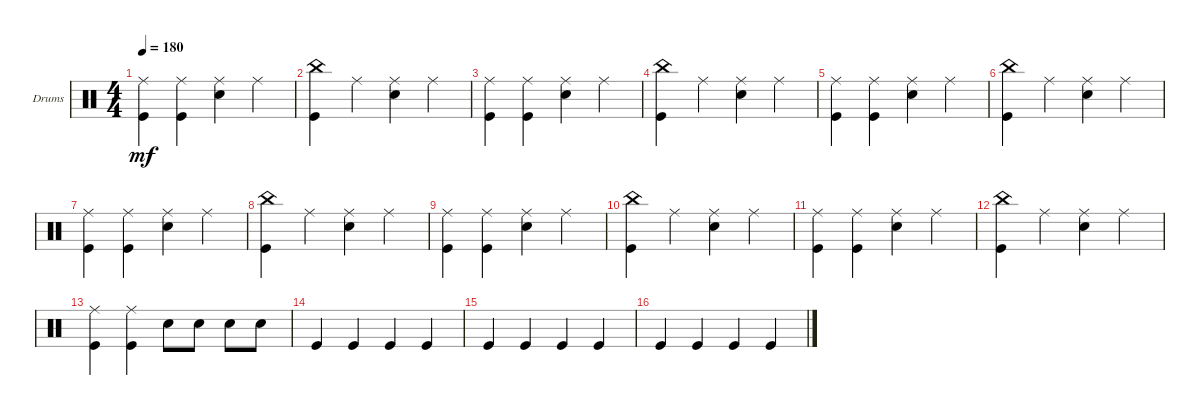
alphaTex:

\defaultSystemsLayout 4
\bracketExtendMode groupsimilarinstruments
\firstSystemTrackNameOrientation horizontal
\otherSystemsTrackNameOrientation horizontal
\track ("Drumkit" "Drums") {instrument percussion}
\staff {score}
\articulation defaults
\ts (4 4)
\tempo 180
\clef neutral
\ks c
("Ride (middle)" "Kick (hit)").4{dy mf} ("Ride (middle)" "Kick (hit)").4 ("Ride (middle)" "Snare (hit) 2").4 "Ride (middle)".4 |
("Kick (hit)" "China (hit)").4 "Ride (middle)".4 ("Ride (middle)" "Snare (hit) 2").4 "Ride (middle)".4 |
("Ride (middle)" "Kick (hit)").4 ("Ride (middle)" "Kick (hit)").4 ("Ride (middle)" "Snare (hit) 2").4 "Ride (middle)".4 |
("Kick (hit)" "China (hit)").4 "Ride (middle)".4 ("Ride (middle)" "Snare (hit) 2").4 "Ride (middle)".4 |
("Ride (middle)" "Kick (hit)").4 ("Ride (middle)" "Kick (hit)").4 ("Ride (middle)" "Snare (hit) 2").4 "Ride (middle)".4 |
("Kick (hit)" "China (hit)").4 "Ride (middle)".4 ("Ride (middle)" "Snare (hit) 2").4 "Ride (middle)".4 |
("Ride (middle)" "Kick (hit)").4 ("Ride (middle)" "Kick (hit)").4 ("Ride (middle)" "Snare (hit) 2").4 "Ride (middle)".4 |
("Kick (hit)" "China (hit)").4 "Ride (middle)".4 ("Ride (middle)" "Snare (hit) 2").4 "Ride (middle)".4 |
("Ride (middle)" "Kick (hit)").4 ("Ride (middle)" "Kick (hit)").4 ("Ride (middle)" "Snare (hit) 2").4 "Ride (middle)".4 |
("Kick (hit)" "China (hit)").4 "Ride (middle)".4 ("Ride (middle)" "Snare (hit) 2").4 "Ride (middle)".4 |
("Ride (middle)" "Kick (hit)").4 ("Ride (middle)" "Kick (hit)").4 ("Ride (middle)" "Snare (hit) 2").4 "Ride (middle)".4 |
("Kick (hit)" "China (hit)").4 "Ride (middle)".4 ("Ride (middle)" "Snare (hit) 2").4 "Ride (middle)".4 |
("Ride (middle)" "Kick (hit)").4 ("Ride (middle)" "Kick (hit)").4 "Snare (hit) 2".8 "Snare (hit) 2".8 "Snare (hit) 2".8 "Snare (hit) 2".8 |
"Kick (hit)".4 "Kick (hit)".4 "Kick (hit)".4 "Kick (hit)".4 |
"Kick (hit)".4 "Kick (hit)".4 "Kick (hit)".4 "Kick (hit)".4 |
"Kick (hit)".4 "Kick (hit)".4 "Kick (hit)".4 "Kick (hit)".4
